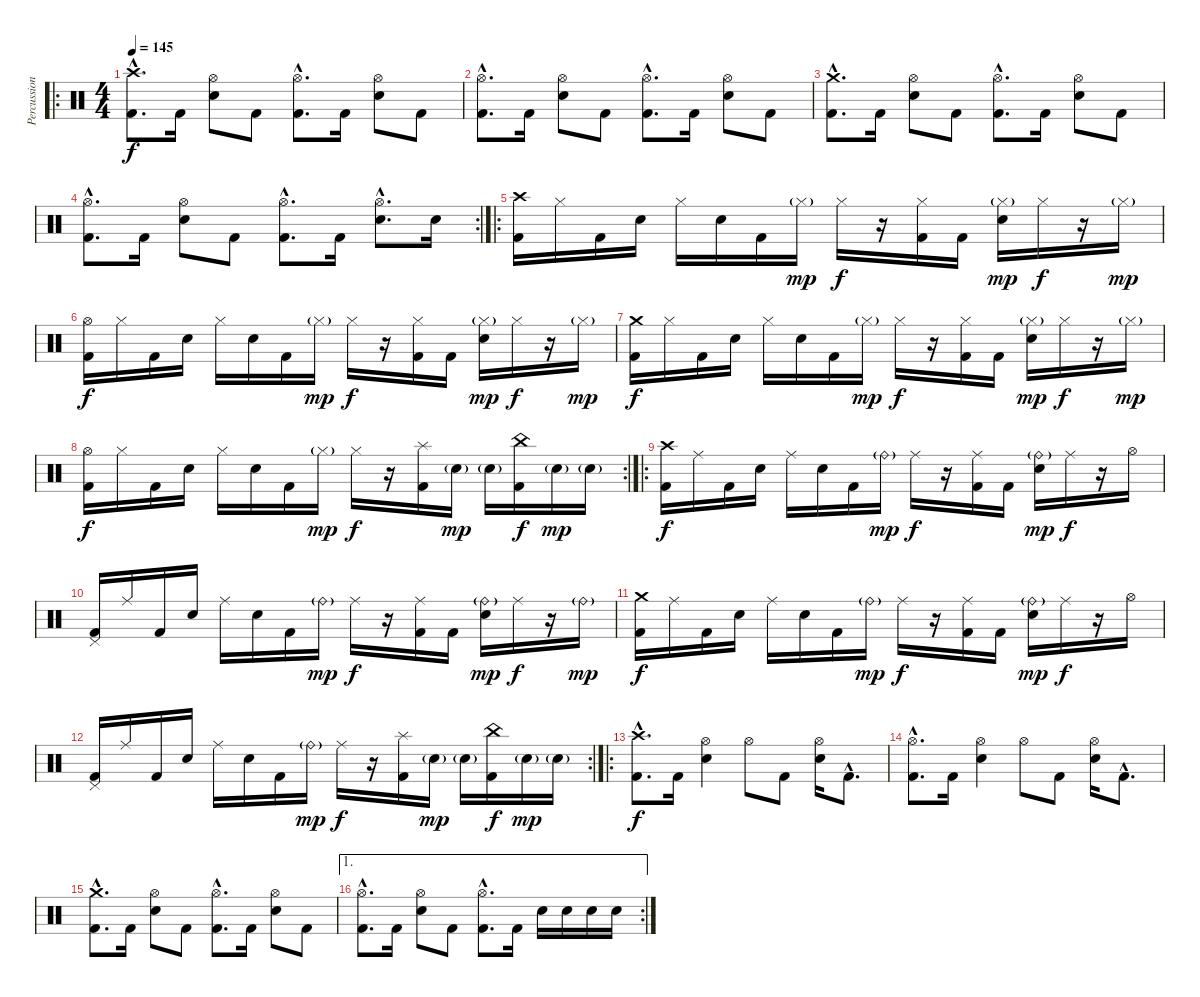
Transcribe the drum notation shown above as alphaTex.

\track ("Percussions" "Percussion") {instrument percussion}
\staff {score}
\articulation defaults
\ro
\ts (4 4)
\tempo 145
\clef neutral
\ks c
("Crash high (hit)"{hac} "Kick (hit) 2"{hac}).8{d dy f} "Kick (hit) 2".16 ("Hi-Hat (open)" "Electric Snare (hit)").8 "Kick (hit) 2".8 ("Hi-Hat (open)"{hac} "Kick (hit) 2"{hac}).8{d} "Kick (hit) 2".16 ("Hi-Hat (open)" "Electric Snare (hit)").8 "Kick (hit) 2".8 |
("Hi-Hat (open)"{hac} "Kick (hit) 2"{hac}).8{d} "Kick (hit) 2".16 ("Hi-Hat (open)" "Electric Snare (hit)").8 "Kick (hit) 2".8 ("Hi-Hat (open)"{hac} "Kick (hit) 2"{hac}).8{d} "Kick (hit) 2".16 ("Hi-Hat (open)" "Electric Snare (hit)").8 "Kick (hit) 2".8 |
("Crash medium (hit)"{hac} "Kick (hit) 2"{hac}).8{d} "Kick (hit) 2".16 ("Hi-Hat (open)" "Electric Snare (hit)").8 "Kick (hit) 2".8 ("Hi-Hat (open)"{hac} "Kick (hit) 2"{hac}).8{d} "Kick (hit) 2".16 ("Hi-Hat (open)" "Electric Snare (hit)").8 "Kick (hit) 2".8 |
\rc 2
("Hi-Hat (open)"{hac} "Kick (hit) 2"{hac}).8{d} "Kick (hit) 2".16 ("Hi-Hat (open)" "Electric Snare (hit)").8 "Kick (hit) 2".8 ("Hi-Hat (open)"{hac} "Kick (hit) 2"{hac}).8{d} "Kick (hit) 2".16 ("Hi-Hat (open)"{hac} "Electric Snare (hit)"{hac}).8{d} "Electric Snare (hit)".16 |
\ro
("Crash high (hit)" "Kick (hit) 2").16 "Hi-Hat (closed)".16 "Kick (hit) 2".16 "Electric Snare (hit)".16 "Hi-Hat (closed)".16 "Electric Snare (hit)".16 "Kick (hit) 2".16 "Hi-Hat (closed)"{g}.16{dy mp} "Hi-Hat (closed)".16{dy f} r.16 ("Hi-Hat (closed)" "Kick (hit) 2").16 "Kick (hit) 2".16 ("Hi-Hat (closed)"{g} "Electric Snare (hit)").16{dy mp} "Hi-Hat (closed)".16{dy f} r.16 "Hi-Hat (closed)"{g}.16{dy mp} |
("Hi-Hat (open)" "Kick (hit) 2").16{dy f} "Hi-Hat (closed)".16 "Kick (hit) 2".16 "Electric Snare (hit)".16 "Hi-Hat (closed)".16 "Electric Snare (hit)".16 "Kick (hit) 2".16 "Hi-Hat (closed)"{g}.16{dy mp} "Hi-Hat (closed)".16{dy f} r.16 ("Hi-Hat (closed)" "Kick (hit) 2").16 "Kick (hit) 2".16 ("Hi-Hat (closed)"{g} "Electric Snare (hit)").16{dy mp} "Hi-Hat (closed)".16{dy f} r.16 "Hi-Hat (closed)"{g}.16{dy mp} |
("Crash medium (hit)" "Kick (hit) 2").16{dy f} "Hi-Hat (closed)".16 "Kick (hit) 2".16 "Electric Snare (hit)".16 "Hi-Hat (closed)".16 "Electric Snare (hit)".16 "Kick (hit) 2".16 "Hi-Hat (closed)"{g}.16{dy mp} "Hi-Hat (closed)".16{dy f} r.16 ("Hi-Hat (closed)" "Kick (hit) 2").16 "Kick (hit) 2".16 ("Hi-Hat (closed)"{g} "Electric Snare (hit)").16{dy mp} "Hi-Hat (closed)".16{dy f} r.16 "Hi-Hat (closed)"{g}.16{dy mp} |
\rc 2
("Hi-Hat (open)" "Kick (hit) 2").16{dy f} "Hi-Hat (closed)".16 "Kick (hit) 2".16 "Electric Snare (hit)".16 "Hi-Hat (closed)".16 "Electric Snare (hit)".16 "Kick (hit) 2".16 "Hi-Hat (closed)"{g}.16{dy mp} "Hi-Hat (closed)".16{dy f} r.16 ("Splash (hit)" "Kick (hit) 2").16 "Electric Snare (hit)"{g}.16{dy mp} "Electric Snare (hit)"{g}.16 ("China (hit)" "Kick (hit) 2").16{dy f} "Electric Snare (hit)"{g}.16{dy mp} "Electric Snare (hit)"{g}.16 |
\ro
("Crash high (hit)" "Kick (hit) 2").16{dy f} "Ride (middle)".16 "Kick (hit) 2".16 "Electric Snare (hit)".16 "Ride (middle)".16 "Electric Snare (hit)".16 "Kick (hit) 2".16 "Ride (bell)"{g}.16{dy mp} "Ride (middle)".16{dy f} r.16 ("Ride (middle)" "Kick (hit) 2").16 "Kick (hit) 2".16 ("Ride (bell)"{g} "Electric Snare (hit)").16{dy mp} "Ride (middle)".16{dy f} r.16 "Hi-Hat (open)".16 |
("Pedal Hi-Hat (hit)" "Kick (hit) 2").16 "Ride (middle)".16 "Kick (hit) 2".16 "Electric Snare (hit)".16 "Ride (middle)".16 "Electric Snare (hit)".16 "Kick (hit) 2".16 "Ride (bell)"{g}.16{dy mp} "Ride (middle)".16{dy f} r.16 ("Ride (middle)" "Kick (hit) 2").16 "Kick (hit) 2".16 ("Ride (bell)"{g} "Electric Snare (hit)").16{dy mp} "Ride (middle)".16{dy f} r.16 "Ride (bell)"{g}.16{dy mp} |
("Crash medium (hit)" "Kick (hit) 2").16{dy f} "Ride (middle)".16 "Kick (hit) 2".16 "Electric Snare (hit)".16 "Ride (middle)".16 "Electric Snare (hit)".16 "Kick (hit) 2".16 "Ride (bell)"{g}.16{dy mp} "Ride (middle)".16{dy f} r.16 ("Ride (middle)" "Kick (hit) 2").16 "Kick (hit) 2".16 ("Ride (bell)"{g} "Electric Snare (hit)").16{dy mp} "Ride (middle)".16{dy f} r.16 "Hi-Hat (open)".16 |
\rc 2
("Pedal Hi-Hat (hit)" "Kick (hit) 2").16 "Ride (middle)".16 "Kick (hit) 2".16 "Electric Snare (hit)".16 "Ride (middle)".16 "Electric Snare (hit)".16 "Kick (hit) 2".16 "Ride (bell)"{g}.16{dy mp} "Ride (middle)".16{dy f} r.16 ("Splash (hit)" "Kick (hit) 2").16 "Electric Snare (hit)"{g}.16{dy mp} "Electric Snare (hit)"{g}.16 ("China (hit)" "Kick (hit) 2").16{dy f} "Electric Snare (hit)"{g}.16{dy mp} "Electric Snare (hit)"{g}.16 |
\ro
("Crash high (hit)"{hac} "Kick (hit) 2"{hac}).8{d dy f} "Kick (hit) 2".16 ("Hi-Hat (open)" "Electric Snare (hit)").4 "Hi-Hat (open)".8 "Kick (hit) 2".8 ("Hi-Hat (open)" "Electric Snare (hit)").16 "Kick (hit) 2"{hac}.8{d} |
("Hi-Hat (open)"{hac} "Kick (hit) 2"{hac}).8{d} "Kick (hit) 2".16 ("Hi-Hat (open)" "Electric Snare (hit)").4 "Hi-Hat (open)".8 "Kick (hit) 2".8 ("Hi-Hat (open)" "Electric Snare (hit)").16 "Kick (hit) 2"{hac}.8{d} |
("Crash medium (hit)"{hac} "Kick (hit) 2"{hac}).8{d} "Kick (hit) 2".16 ("Hi-Hat (open)" "Electric Snare (hit)").8 "Kick (hit) 2".8 ("Hi-Hat (open)"{hac} "Kick (hit) 2"{hac}).8{d} "Kick (hit) 2".16 ("Hi-Hat (open)" "Electric Snare (hit)").8 "Kick (hit) 2".8 |
\ae 1
\rc 2
("Hi-Hat (open)"{hac} "Kick (hit) 2"{hac}).8{d} "Kick (hit) 2".16 ("Hi-Hat (open)" "Electric Snare (hit)").8 "Kick (hit) 2".8 ("Hi-Hat (open)"{hac} "Kick (hit) 2"{hac}).8{d} "Kick (hit) 2".16 "Electric Snare (hit)".16 "Electric Snare (hit)".16 "Electric Snare (hit)".16 "Electric Snare (hit)".16
